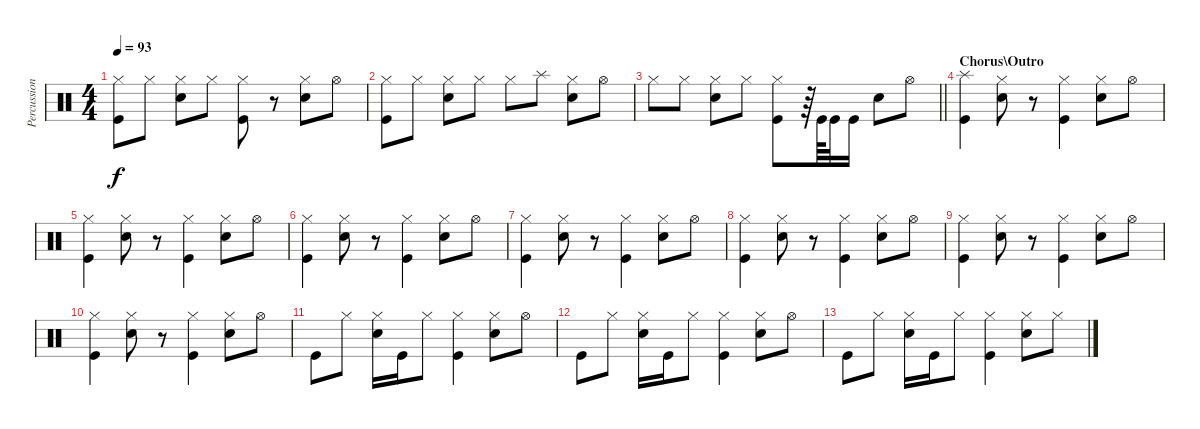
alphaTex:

\track ("Percussion" "Percussion") {instrument percussion}
\staff {score}
\articulation defaults
\ts (4 4)
\tempo 93
\clef neutral
\ks c
("Hi-Hat (closed)" "Kick (hit)").8{dy f} "Hi-Hat (closed)".8 ("Hi-Hat (closed)" "Snare (hit) 2").8 "Hi-Hat (closed)".8 ("Hi-Hat (closed)" "Kick (hit)").8 r.8 ("Hi-Hat (closed)" "Snare (hit) 2").8 "Hi-Hat (open)".8 |
("Hi-Hat (closed)" "Kick (hit)").8 "Hi-Hat (closed)".8 ("Hi-Hat (closed)" "Snare (hit) 2").8 "Hi-Hat (closed)".8 "Hi-Hat (closed)".8 "Splash (hit)".8 ("Hi-Hat (closed)" "Snare (hit) 2").8 "Hi-Hat (open)".8 |
\barLineRight lightlight "Hi-Hat (closed)".8 "Hi-Hat (closed)".8
("Hi-Hat (closed)" "Snare (hit) 2").8 "Hi-Hat (closed)".8 ("Hi-Hat (closed)" "Kick (hit)").8 r.64 "Kick (hit)".64 "Kick (hit)".32 "Kick (hit)".16 "Snare (hit) 2".8 "Hi-Hat (open)".8 |
\section ("" "Chorus\\Outro")
("Splash (hit)" "Kick (hit)").4 ("Hi-Hat (closed)" "Snare (hit) 2").8 r.8 ("Hi-Hat (closed)" "Kick (hit)").4 ("Hi-Hat (closed)" "Snare (hit) 2").8 "Hi-Hat (open)".8 |
("Hi-Hat (closed)" "Kick (hit)").4 ("Hi-Hat (closed)" "Snare (hit) 2").8 r.8 ("Hi-Hat (closed)" "Kick (hit)").4 ("Hi-Hat (closed)" "Snare (hit) 2").8 "Hi-Hat (open)".8 |
("Hi-Hat (closed)" "Kick (hit)").4 ("Hi-Hat (closed)" "Snare (hit) 2").8 r.8 ("Hi-Hat (closed)" "Kick (hit)").4 ("Hi-Hat (closed)" "Snare (hit) 2").8 "Hi-Hat (open)".8 |
("Hi-Hat (closed)" "Kick (hit)").4 ("Hi-Hat (closed)" "Snare (hit) 2").8 r.8 ("Hi-Hat (closed)" "Kick (hit)").4 ("Hi-Hat (closed)" "Snare (hit) 2").8 "Hi-Hat (open)".8 |
("Hi-Hat (closed)" "Kick (hit)").4 ("Hi-Hat (closed)" "Snare (hit) 2").8 r.8 ("Hi-Hat (closed)" "Kick (hit)").4 ("Hi-Hat (closed)" "Snare (hit) 2").8 "Hi-Hat (open)".8 |
("Hi-Hat (closed)" "Kick (hit)").4 ("Hi-Hat (closed)" "Snare (hit) 2").8 r.8 ("Hi-Hat (closed)" "Kick (hit)").4 ("Hi-Hat (closed)" "Snare (hit) 2").8 "Hi-Hat (open)".8 |
("Hi-Hat (closed)" "Kick (hit)").4 ("Hi-Hat (closed)" "Snare (hit) 2").8 r.8 ("Hi-Hat (closed)" "Kick (hit)").4 ("Hi-Hat (closed)" "Snare (hit) 2").8 "Hi-Hat (open)".8 |
"Kick (hit)".8 "Hi-Hat (closed)".8 ("Hi-Hat (closed)" "Snare (hit) 2").16 "Kick (hit)".16 "Hi-Hat (closed)".8 ("Hi-Hat (closed)" "Kick (hit)").4 ("Hi-Hat (closed)" "Snare (hit) 2").8 "Hi-Hat (open)".8 |
"Kick (hit)".8 "Hi-Hat (closed)".8 ("Hi-Hat (closed)" "Snare (hit) 2").16 "Kick (hit)".16 "Hi-Hat (closed)".8 ("Hi-Hat (closed)" "Kick (hit)").4 ("Hi-Hat (closed)" "Snare (hit) 2").8 "Hi-Hat (open)".8 |
"Kick (hit)".8 "Hi-Hat (closed)".8 ("Hi-Hat (closed)" "Snare (hit) 2").16 "Kick (hit)".16 "Hi-Hat (closed)".8 ("Hi-Hat (closed)" "Kick (hit)").4 ("Hi-Hat (closed)" "Snare (hit) 2").8 "Hi-Hat (closed)".8
